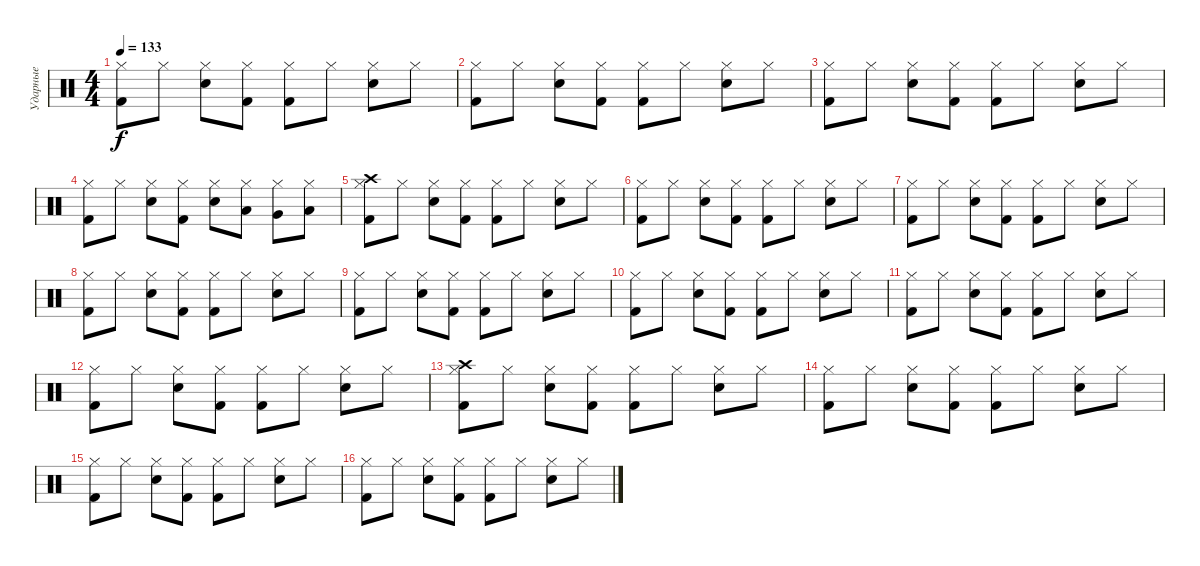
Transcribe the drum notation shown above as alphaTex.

\track ("Ударные" "Ударные") {instrument percussion}
\staff {score}
\articulation defaults
\ts (4 4)
\tempo 133
\clef neutral
\ks c
("Kick (hit) 2" "Hi-Hat (closed)").8{dy f} "Hi-Hat (closed)".8 ("Electric Snare (hit)" "Hi-Hat (closed)").8 ("Kick (hit) 2" "Hi-Hat (closed)").8 ("Kick (hit) 2" "Hi-Hat (closed)").8 "Hi-Hat (closed)".8 ("Electric Snare (hit)" "Hi-Hat (closed)").8 "Hi-Hat (closed)".8 |
("Kick (hit) 2" "Hi-Hat (closed)").8 "Hi-Hat (closed)".8 ("Electric Snare (hit)" "Hi-Hat (closed)").8 ("Kick (hit) 2" "Hi-Hat (closed)").8 ("Kick (hit) 2" "Hi-Hat (closed)").8 "Hi-Hat (closed)".8 ("Electric Snare (hit)" "Hi-Hat (closed)").8 "Hi-Hat (closed)".8 |
("Kick (hit) 2" "Hi-Hat (closed)").8 "Hi-Hat (closed)".8 ("Electric Snare (hit)" "Hi-Hat (closed)").8 ("Kick (hit) 2" "Hi-Hat (closed)").8 ("Kick (hit) 2" "Hi-Hat (closed)").8 "Hi-Hat (closed)".8 ("Electric Snare (hit)" "Hi-Hat (closed)").8 "Hi-Hat (closed)".8 |
("Kick (hit) 2" "Hi-Hat (closed)").8 "Hi-Hat (closed)".8 ("Electric Snare (hit)" "Hi-Hat (closed)").8 ("Kick (hit) 2" "Hi-Hat (closed)").8 ("Electric Snare (hit)" "Hi-Hat (closed)").8 ("Low Tom (hit)" "Hi-Hat (closed)").8 ("Very Low Tom (hit)" "Hi-Hat (closed)").8 ("Low Floor Tom (hit)" "Hi-Hat (closed)").8 |
("Kick (hit) 2" "Crash high (hit)" "Hi-Hat (closed)").8 "Hi-Hat (closed)".8 ("Electric Snare (hit)" "Hi-Hat (closed)").8 ("Kick (hit) 2" "Hi-Hat (closed)").8 ("Kick (hit) 2" "Hi-Hat (closed)").8 "Hi-Hat (closed)".8 ("Electric Snare (hit)" "Hi-Hat (closed)").8 "Hi-Hat (closed)".8 |
("Kick (hit) 2" "Hi-Hat (closed)").8 "Hi-Hat (closed)".8 ("Electric Snare (hit)" "Hi-Hat (closed)").8 ("Kick (hit) 2" "Hi-Hat (closed)").8 ("Kick (hit) 2" "Hi-Hat (closed)").8 "Hi-Hat (closed)".8 ("Electric Snare (hit)" "Hi-Hat (closed)").8 "Hi-Hat (closed)".8 |
("Kick (hit) 2" "Hi-Hat (closed)").8 "Hi-Hat (closed)".8 ("Electric Snare (hit)" "Hi-Hat (closed)").8 ("Kick (hit) 2" "Hi-Hat (closed)").8 ("Kick (hit) 2" "Hi-Hat (closed)").8 "Hi-Hat (closed)".8 ("Electric Snare (hit)" "Hi-Hat (closed)").8 "Hi-Hat (closed)".8 |
("Kick (hit) 2" "Hi-Hat (closed)").8 "Hi-Hat (closed)".8 ("Electric Snare (hit)" "Hi-Hat (closed)").8 ("Kick (hit) 2" "Hi-Hat (closed)").8 ("Kick (hit) 2" "Hi-Hat (closed)").8 "Hi-Hat (closed)".8 ("Electric Snare (hit)" "Hi-Hat (closed)").8 "Hi-Hat (closed)".8 |
("Kick (hit) 2" "Hi-Hat (closed)").8 "Hi-Hat (closed)".8 ("Electric Snare (hit)" "Hi-Hat (closed)").8 ("Kick (hit) 2" "Hi-Hat (closed)").8 ("Kick (hit) 2" "Hi-Hat (closed)").8 "Hi-Hat (closed)".8 ("Electric Snare (hit)" "Hi-Hat (closed)").8 "Hi-Hat (closed)".8 |
("Kick (hit) 2" "Hi-Hat (closed)").8 "Hi-Hat (closed)".8 ("Electric Snare (hit)" "Hi-Hat (closed)").8 ("Kick (hit) 2" "Hi-Hat (closed)").8 ("Kick (hit) 2" "Hi-Hat (closed)").8 "Hi-Hat (closed)".8 ("Electric Snare (hit)" "Hi-Hat (closed)").8 "Hi-Hat (closed)".8 |
("Kick (hit) 2" "Hi-Hat (closed)").8 "Hi-Hat (closed)".8 ("Electric Snare (hit)" "Hi-Hat (closed)").8 ("Kick (hit) 2" "Hi-Hat (closed)").8 ("Kick (hit) 2" "Hi-Hat (closed)").8 "Hi-Hat (closed)".8 ("Electric Snare (hit)" "Hi-Hat (closed)").8 "Hi-Hat (closed)".8 |
("Kick (hit) 2" "Hi-Hat (closed)").8 "Hi-Hat (closed)".8 ("Electric Snare (hit)" "Hi-Hat (closed)").8 ("Kick (hit) 2" "Hi-Hat (closed)").8 ("Kick (hit) 2" "Hi-Hat (closed)").8 "Hi-Hat (closed)".8 ("Electric Snare (hit)" "Hi-Hat (closed)").8 "Hi-Hat (closed)".8 |
("Kick (hit) 2" "Crash high (hit)" "Hi-Hat (closed)").8 "Hi-Hat (closed)".8 ("Electric Snare (hit)" "Hi-Hat (closed)").8 ("Kick (hit) 2" "Hi-Hat (closed)").8 ("Kick (hit) 2" "Hi-Hat (closed)").8 "Hi-Hat (closed)".8 ("Electric Snare (hit)" "Hi-Hat (closed)").8 "Hi-Hat (closed)".8 |
("Kick (hit) 2" "Hi-Hat (closed)").8 "Hi-Hat (closed)".8 ("Electric Snare (hit)" "Hi-Hat (closed)").8 ("Kick (hit) 2" "Hi-Hat (closed)").8 ("Kick (hit) 2" "Hi-Hat (closed)").8 "Hi-Hat (closed)".8 ("Electric Snare (hit)" "Hi-Hat (closed)").8 "Hi-Hat (closed)".8 |
("Kick (hit) 2" "Hi-Hat (closed)").8 "Hi-Hat (closed)".8 ("Electric Snare (hit)" "Hi-Hat (closed)").8 ("Kick (hit) 2" "Hi-Hat (closed)").8 ("Kick (hit) 2" "Hi-Hat (closed)").8 "Hi-Hat (closed)".8 ("Electric Snare (hit)" "Hi-Hat (closed)").8 "Hi-Hat (closed)".8 |
("Kick (hit) 2" "Hi-Hat (closed)").8 "Hi-Hat (closed)".8 ("Electric Snare (hit)" "Hi-Hat (closed)").8 ("Kick (hit) 2" "Hi-Hat (closed)").8 ("Kick (hit) 2" "Hi-Hat (closed)").8 "Hi-Hat (closed)".8 ("Electric Snare (hit)" "Hi-Hat (closed)").8 "Hi-Hat (closed)".8
